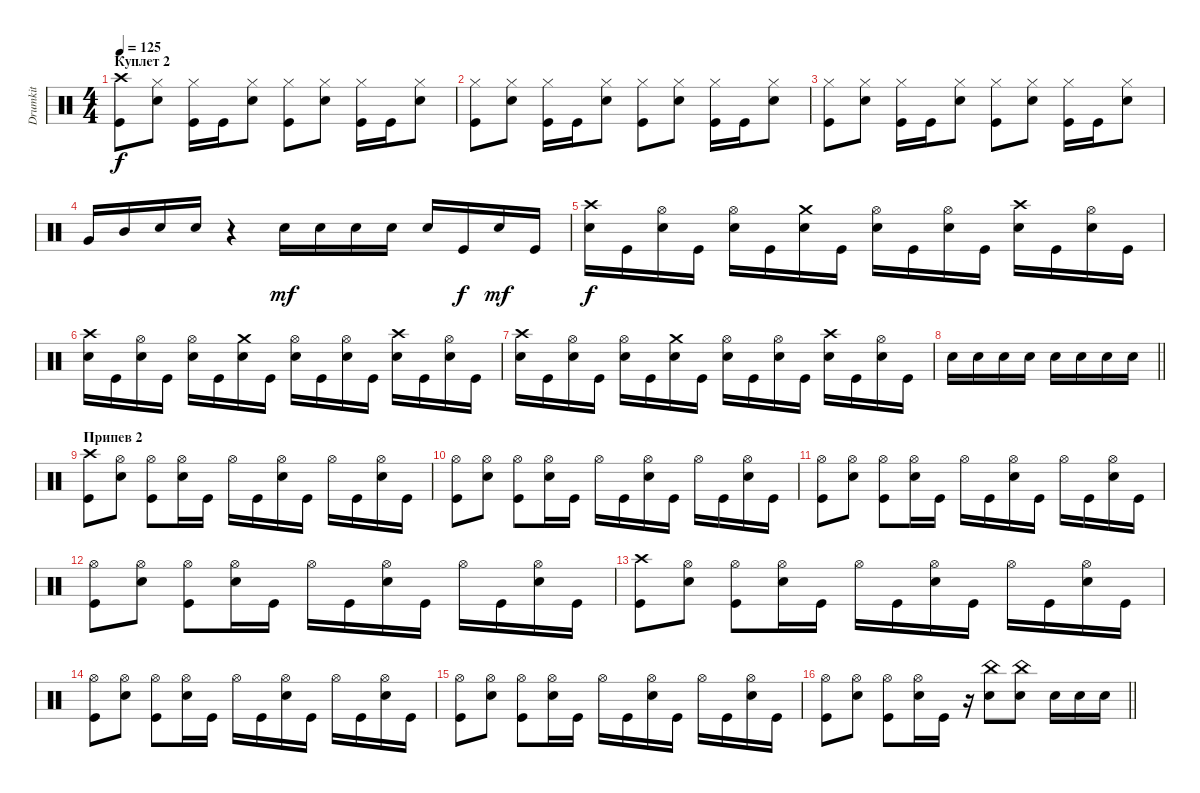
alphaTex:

\track ("Drumkit" "Drumkit") {instrument percussion}
\staff {score}
\articulation defaults
\ts (4 4)
\section ("" "Куплет 2")
\tempo 125
\clef neutral
\ks c
("Crash high (hit)" "Kick (hit)").8{dy f} ("Hi-Hat (closed)" "Snare (hit) 2").8 ("Kick (hit)" "Hi-Hat (closed)").16 "Kick (hit)".16 ("Hi-Hat (closed)" "Snare (hit) 2").8 ("Hi-Hat (closed)" "Kick (hit)").8 ("Hi-Hat (closed)" "Snare (hit) 2").8 ("Kick (hit)" "Hi-Hat (closed)").16 "Kick (hit)".16 ("Hi-Hat (closed)" "Snare (hit) 2").8 |
("Hi-Hat (closed)" "Kick (hit)").8 ("Hi-Hat (closed)" "Snare (hit) 2").8 ("Kick (hit)" "Hi-Hat (closed)").16 "Kick (hit)".16 ("Hi-Hat (closed)" "Snare (hit) 2").8 ("Hi-Hat (closed)" "Kick (hit)").8 ("Hi-Hat (closed)" "Snare (hit) 2").8 ("Kick (hit)" "Hi-Hat (closed)").16 "Kick (hit)".16 ("Hi-Hat (closed)" "Snare (hit) 2").8 |
("Hi-Hat (closed)" "Kick (hit)").8 ("Hi-Hat (closed)" "Snare (hit) 2").8 ("Kick (hit)" "Hi-Hat (closed)").16 "Kick (hit)".16 ("Hi-Hat (closed)" "Snare (hit) 2").8 ("Hi-Hat (closed)" "Kick (hit)").8 ("Hi-Hat (closed)" "Snare (hit) 2").8 ("Kick (hit)" "Hi-Hat (closed)").16 "Kick (hit)".16 ("Hi-Hat (closed)" "Snare (hit) 2").8 |
"Very Low Tom (hit)".16 "Mid Tom (hit)".16 "Snare (hit) 2".16 "Snare (hit) 2".16 r.4 "Snare (hit) 2".16{dy mf} "Snare (hit) 2".16 "Snare (hit) 2".16 "Snare (hit) 2".16 "Snare (hit) 2".16 "Kick (hit)".16{dy f} "Snare (hit) 2".16{dy mf} "Kick (hit)".16 |
("Crash high (hit)" "Snare (hit) 2").16{dy f} "Kick (hit)".16 ("Hi-Hat (open)" "Snare (hit) 2").16 "Kick (hit)".16 ("Hi-Hat (open)" "Snare (hit) 2").16 "Kick (hit)".16 ("Crash medium (hit)" "Snare (hit) 2").16 "Kick (hit)".16 ("Hi-Hat (open)" "Snare (hit) 2").16 "Kick (hit)".16 ("Hi-Hat (open)" "Snare (hit) 2").16 "Kick (hit)".16 ("Crash high (hit)" "Snare (hit) 2").16 "Kick (hit)".16 ("Hi-Hat (open)" "Snare (hit) 2").16 "Kick (hit)".16 |
("Crash high (hit)" "Snare (hit) 2").16 "Kick (hit)".16 ("Hi-Hat (open)" "Snare (hit) 2").16 "Kick (hit)".16 ("Hi-Hat (open)" "Snare (hit) 2").16 "Kick (hit)".16 ("Crash medium (hit)" "Snare (hit) 2").16 "Kick (hit)".16 ("Hi-Hat (open)" "Snare (hit) 2").16 "Kick (hit)".16 ("Hi-Hat (open)" "Snare (hit) 2").16 "Kick (hit)".16 ("Crash high (hit)" "Snare (hit) 2").16 "Kick (hit)".16 ("Hi-Hat (open)" "Snare (hit) 2").16 "Kick (hit)".16 |
("Crash high (hit)" "Snare (hit) 2").16 "Kick (hit)".16 ("Hi-Hat (open)" "Snare (hit) 2").16 "Kick (hit)".16 ("Hi-Hat (open)" "Snare (hit) 2").16 "Kick (hit)".16 ("Crash medium (hit)" "Snare (hit) 2").16 "Kick (hit)".16 ("Hi-Hat (open)" "Snare (hit) 2").16 "Kick (hit)".16 ("Hi-Hat (open)" "Snare (hit) 2").16 "Kick (hit)".16 ("Crash high (hit)" "Snare (hit) 2").16 "Kick (hit)".16 ("Hi-Hat (open)" "Snare (hit) 2").16 "Kick (hit)".16 |
\barLineRight lightlight "Snare (hit) 2".16 "Snare (hit) 2".16 "Snare (hit) 2".16 "Snare (hit) 2".16 "Snare (hit) 2".16 "Snare (hit) 2".16 "Snare (hit) 2".16 "Snare (hit) 2".16
|
\section ("" "Припев 2")
("Crash high (hit)" "Kick (hit)").8 ("Hi-Hat (open)" "Snare (hit) 2").8 ("Kick (hit)" "Hi-Hat (open)").8 ("Hi-Hat (open)" "Snare (hit) 2").16 "Kick (hit)".16 "Hi-Hat (open)".16 "Kick (hit)".16 ("Hi-Hat (open)" "Snare (hit) 2").16 "Kick (hit)".16 "Hi-Hat (open)".16 "Kick (hit)".16 ("Hi-Hat (open)" "Snare (hit) 2").16 "Kick (hit)".16 |
("Hi-Hat (open)" "Kick (hit)").8 ("Hi-Hat (open)" "Snare (hit) 2").8 ("Kick (hit)" "Hi-Hat (open)").8 ("Hi-Hat (open)" "Snare (hit) 2").16 "Kick (hit)".16 "Hi-Hat (open)".16 "Kick (hit)".16 ("Hi-Hat (open)" "Snare (hit) 2").16 "Kick (hit)".16 "Hi-Hat (open)".16 "Kick (hit)".16 ("Hi-Hat (open)" "Snare (hit) 2").16 "Kick (hit)".16 |
("Hi-Hat (open)" "Kick (hit)").8 ("Hi-Hat (open)" "Snare (hit) 2").8 ("Kick (hit)" "Hi-Hat (open)").8 ("Hi-Hat (open)" "Snare (hit) 2").16 "Kick (hit)".16 "Hi-Hat (open)".16 "Kick (hit)".16 ("Hi-Hat (open)" "Snare (hit) 2").16 "Kick (hit)".16 "Hi-Hat (open)".16 "Kick (hit)".16 ("Hi-Hat (open)" "Snare (hit) 2").16 "Kick (hit)".16 |
("Hi-Hat (open)" "Kick (hit)").8 ("Hi-Hat (open)" "Snare (hit) 2").8 ("Kick (hit)" "Hi-Hat (open)").8 ("Hi-Hat (open)" "Snare (hit) 2").16 "Kick (hit)".16 "Hi-Hat (open)".16 "Kick (hit)".16 ("Hi-Hat (open)" "Snare (hit) 2").16 "Kick (hit)".16 "Hi-Hat (open)".16 "Kick (hit)".16 ("Hi-Hat (open)" "Snare (hit) 2").16 "Kick (hit)".16 |
("Crash high (hit)" "Kick (hit)").8 ("Hi-Hat (open)" "Snare (hit) 2").8 ("Kick (hit)" "Hi-Hat (open)").8 ("Hi-Hat (open)" "Snare (hit) 2").16 "Kick (hit)".16 "Hi-Hat (open)".16 "Kick (hit)".16 ("Hi-Hat (open)" "Snare (hit) 2").16 "Kick (hit)".16 "Hi-Hat (open)".16 "Kick (hit)".16 ("Hi-Hat (open)" "Snare (hit) 2").16 "Kick (hit)".16 |
("Hi-Hat (open)" "Kick (hit)").8 ("Hi-Hat (open)" "Snare (hit) 2").8 ("Kick (hit)" "Hi-Hat (open)").8 ("Hi-Hat (open)" "Snare (hit) 2").16 "Kick (hit)".16 "Hi-Hat (open)".16 "Kick (hit)".16 ("Hi-Hat (open)" "Snare (hit) 2").16 "Kick (hit)".16 "Hi-Hat (open)".16 "Kick (hit)".16 ("Hi-Hat (open)" "Snare (hit) 2").16 "Kick (hit)".16 |
("Hi-Hat (open)" "Kick (hit)").8 ("Hi-Hat (open)" "Snare (hit) 2").8 ("Kick (hit)" "Hi-Hat (open)").8 ("Hi-Hat (open)" "Snare (hit) 2").16 "Kick (hit)".16 "Hi-Hat (open)".16 "Kick (hit)".16 ("Hi-Hat (open)" "Snare (hit) 2").16 "Kick (hit)".16 "Hi-Hat (open)".16 "Kick (hit)".16 ("Hi-Hat (open)" "Snare (hit) 2").16 "Kick (hit)".16 |
\barLineRight lightlight
("Hi-Hat (open)" "Kick (hit)").8 ("Hi-Hat (open)" "Snare (hit) 2").8 ("Kick (hit)" "Hi-Hat (open)").8 ("Hi-Hat (open)" "Snare (hit) 2").16 "Kick (hit)".16 r.16 ("China (hit)" "Snare (hit) 2").8 ("China (hit)" "Snare (hit) 2").8 "Snare (hit) 2".16 "Snare (hit) 2".16 "Snare (hit) 2".16
